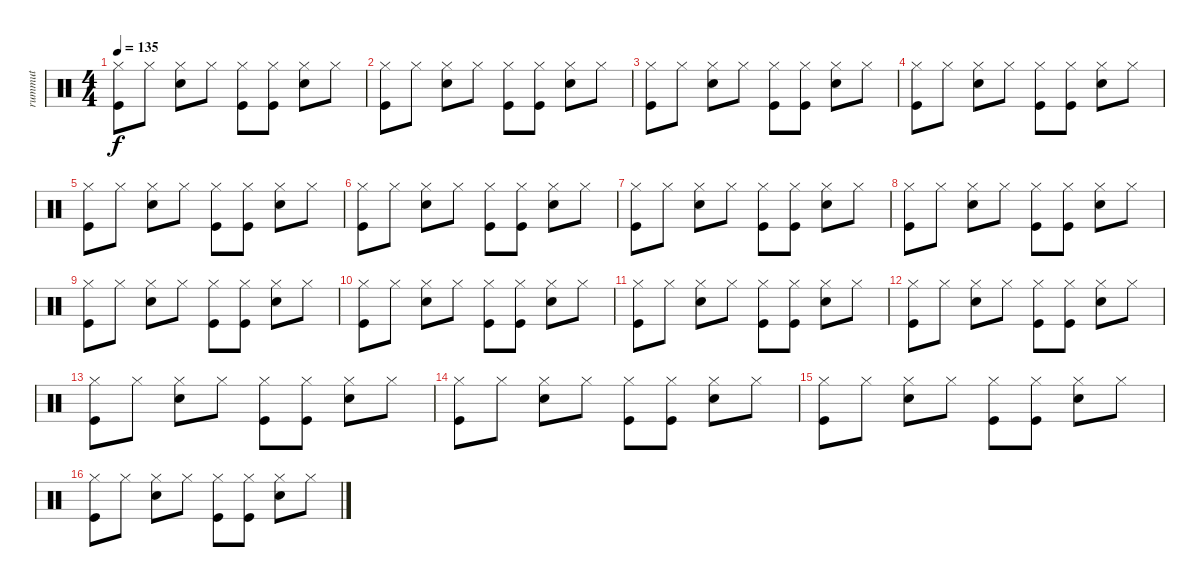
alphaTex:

\track ("rummut" "rummut") {instrument percussion}
\staff {score}
\articulation defaults
\ts (4 4)
\tempo 135
\clef neutral
\ks c
("Hi-Hat (closed)" "Kick (hit)").8{dy f} "Hi-Hat (closed)".8 ("Hi-Hat (closed)" "Snare (hit) 2").8 "Hi-Hat (closed)".8 ("Hi-Hat (closed)" "Kick (hit)").8 ("Hi-Hat (closed)" "Kick (hit)").8 ("Hi-Hat (closed)" "Snare (hit) 2").8 "Hi-Hat (closed)".8 |
("Hi-Hat (closed)" "Kick (hit)").8 "Hi-Hat (closed)".8 ("Hi-Hat (closed)" "Snare (hit) 2").8 "Hi-Hat (closed)".8 ("Hi-Hat (closed)" "Kick (hit)").8 ("Hi-Hat (closed)" "Kick (hit)").8 ("Hi-Hat (closed)" "Snare (hit) 2").8 "Hi-Hat (closed)".8 |
("Hi-Hat (closed)" "Kick (hit)").8 "Hi-Hat (closed)".8 ("Hi-Hat (closed)" "Snare (hit) 2").8 "Hi-Hat (closed)".8 ("Hi-Hat (closed)" "Kick (hit)").8 ("Hi-Hat (closed)" "Kick (hit)").8 ("Hi-Hat (closed)" "Snare (hit) 2").8 "Hi-Hat (closed)".8 |
("Hi-Hat (closed)" "Kick (hit)").8 "Hi-Hat (closed)".8 ("Hi-Hat (closed)" "Snare (hit) 2").8 "Hi-Hat (closed)".8 ("Hi-Hat (closed)" "Kick (hit)").8 ("Hi-Hat (closed)" "Kick (hit)").8 ("Hi-Hat (closed)" "Snare (hit) 2").8 "Hi-Hat (closed)".8 |
("Hi-Hat (closed)" "Kick (hit)").8 "Hi-Hat (closed)".8 ("Hi-Hat (closed)" "Snare (hit) 2").8 "Hi-Hat (closed)".8 ("Hi-Hat (closed)" "Kick (hit)").8 ("Hi-Hat (closed)" "Kick (hit)").8 ("Hi-Hat (closed)" "Snare (hit) 2").8 "Hi-Hat (closed)".8 |
("Hi-Hat (closed)" "Kick (hit)").8 "Hi-Hat (closed)".8 ("Hi-Hat (closed)" "Snare (hit) 2").8 "Hi-Hat (closed)".8 ("Hi-Hat (closed)" "Kick (hit)").8 ("Hi-Hat (closed)" "Kick (hit)").8 ("Hi-Hat (closed)" "Snare (hit) 2").8 "Hi-Hat (closed)".8 |
("Hi-Hat (closed)" "Kick (hit)").8 "Hi-Hat (closed)".8 ("Hi-Hat (closed)" "Snare (hit) 2").8 "Hi-Hat (closed)".8 ("Hi-Hat (closed)" "Kick (hit)").8 ("Hi-Hat (closed)" "Kick (hit)").8 ("Hi-Hat (closed)" "Snare (hit) 2").8 "Hi-Hat (closed)".8 |
("Hi-Hat (closed)" "Kick (hit)").8 "Hi-Hat (closed)".8 ("Hi-Hat (closed)" "Snare (hit) 2").8 "Hi-Hat (closed)".8 ("Hi-Hat (closed)" "Kick (hit)").8 ("Hi-Hat (closed)" "Kick (hit)").8 ("Hi-Hat (closed)" "Snare (hit) 2").8 "Hi-Hat (closed)".8 |
("Hi-Hat (closed)" "Kick (hit)").8 "Hi-Hat (closed)".8 ("Hi-Hat (closed)" "Snare (hit) 2").8 "Hi-Hat (closed)".8 ("Hi-Hat (closed)" "Kick (hit)").8 ("Hi-Hat (closed)" "Kick (hit)").8 ("Hi-Hat (closed)" "Snare (hit) 2").8 "Hi-Hat (closed)".8 |
("Hi-Hat (closed)" "Kick (hit)").8 "Hi-Hat (closed)".8 ("Hi-Hat (closed)" "Snare (hit) 2").8 "Hi-Hat (closed)".8 ("Hi-Hat (closed)" "Kick (hit)").8 ("Hi-Hat (closed)" "Kick (hit)").8 ("Hi-Hat (closed)" "Snare (hit) 2").8 "Hi-Hat (closed)".8 |
("Hi-Hat (closed)" "Kick (hit)").8 "Hi-Hat (closed)".8 ("Hi-Hat (closed)" "Snare (hit) 2").8 "Hi-Hat (closed)".8 ("Hi-Hat (closed)" "Kick (hit)").8 ("Hi-Hat (closed)" "Kick (hit)").8 ("Hi-Hat (closed)" "Snare (hit) 2").8 "Hi-Hat (closed)".8 |
("Hi-Hat (closed)" "Kick (hit)").8 "Hi-Hat (closed)".8 ("Hi-Hat (closed)" "Snare (hit) 2").8 "Hi-Hat (closed)".8 ("Hi-Hat (closed)" "Kick (hit)").8 ("Hi-Hat (closed)" "Kick (hit)").8 ("Hi-Hat (closed)" "Snare (hit) 2").8 "Hi-Hat (closed)".8 |
("Hi-Hat (closed)" "Kick (hit)").8 "Hi-Hat (closed)".8 ("Hi-Hat (closed)" "Snare (hit) 2").8 "Hi-Hat (closed)".8 ("Hi-Hat (closed)" "Kick (hit)").8 ("Hi-Hat (closed)" "Kick (hit)").8 ("Hi-Hat (closed)" "Snare (hit) 2").8 "Hi-Hat (closed)".8 |
("Hi-Hat (closed)" "Kick (hit)").8 "Hi-Hat (closed)".8 ("Hi-Hat (closed)" "Snare (hit) 2").8 "Hi-Hat (closed)".8 ("Hi-Hat (closed)" "Kick (hit)").8 ("Hi-Hat (closed)" "Kick (hit)").8 ("Hi-Hat (closed)" "Snare (hit) 2").8 "Hi-Hat (closed)".8 |
("Hi-Hat (closed)" "Kick (hit)").8 "Hi-Hat (closed)".8 ("Hi-Hat (closed)" "Snare (hit) 2").8 "Hi-Hat (closed)".8 ("Hi-Hat (closed)" "Kick (hit)").8 ("Hi-Hat (closed)" "Kick (hit)").8 ("Hi-Hat (closed)" "Snare (hit) 2").8 "Hi-Hat (closed)".8 |
("Hi-Hat (closed)" "Kick (hit)").8 "Hi-Hat (closed)".8 ("Hi-Hat (closed)" "Snare (hit) 2").8 "Hi-Hat (closed)".8 ("Hi-Hat (closed)" "Kick (hit)").8 ("Hi-Hat (closed)" "Kick (hit)").8 ("Hi-Hat (closed)" "Snare (hit) 2").8 "Hi-Hat (closed)".8
